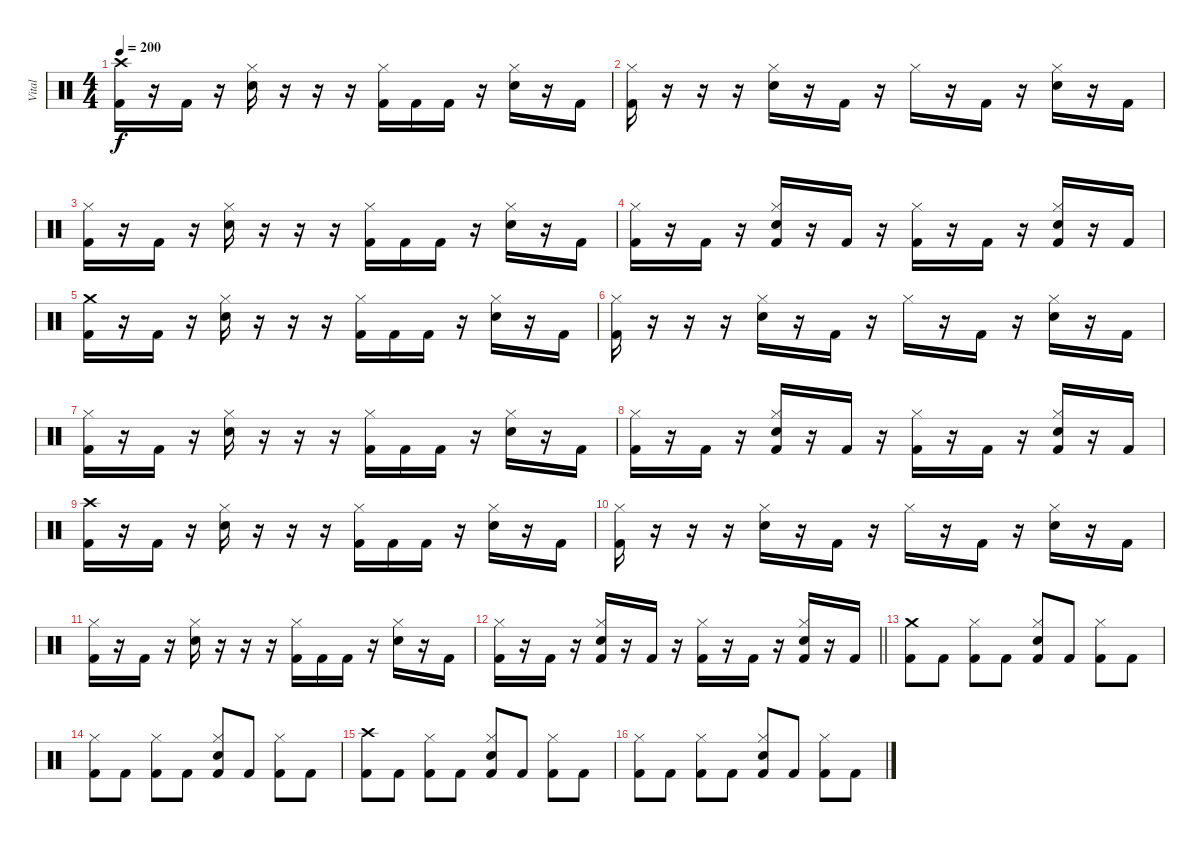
\track ("Vital" "Vital") {instrument percussion}
\staff {score}
\articulation defaults
\ts (4 4)
\tempo 200
\clef neutral
\ks c
("Crash high (hit)" "Kick (hit) 2").16{dy f} r.16 "Kick (hit) 2".16 r.16 ("Hi-Hat (closed)" "Snare (hit) 2").16 r.16 r.16 r.16 ("Hi-Hat (closed)" "Kick (hit) 2").16 "Kick (hit) 2".16 "Kick (hit) 2".16 r.16 ("Hi-Hat (closed)" "Snare (hit) 2").16 r.16 "Kick (hit) 2".16 |
("Hi-Hat (closed)" "Kick (hit) 2").16 r.16 r.16 r.16 ("Hi-Hat (closed)" "Snare (hit) 2").16 r.16 "Kick (hit) 2".16 r.16 "Hi-Hat (closed)".16 r.16 "Kick (hit) 2".16 r.16 ("Hi-Hat (closed)" "Snare (hit) 2").16 r.16 "Kick (hit) 2".16 |
("Hi-Hat (closed)" "Kick (hit) 2").16 r.16 "Kick (hit) 2".16 r.16 ("Hi-Hat (closed)" "Snare (hit) 2").16 r.16 r.16 r.16 ("Hi-Hat (closed)" "Kick (hit) 2").16 "Kick (hit) 2".16 "Kick (hit) 2".16 r.16 ("Hi-Hat (closed)" "Snare (hit) 2").16 r.16 "Kick (hit) 2".16 |
("Hi-Hat (closed)" "Kick (hit) 2").16 r.16 "Kick (hit) 2".16 r.16 ("Hi-Hat (closed)" "Snare (hit) 2" "Kick (hit) 2").16 r.16 "Kick (hit) 2".16 r.16 ("Hi-Hat (closed)" "Kick (hit) 2").16 r.16 "Kick (hit) 2".16 r.16 ("Hi-Hat (closed)" "Snare (hit) 2" "Kick (hit) 2").16 r.16 "Kick (hit) 2".16 |
("Crash medium (hit)" "Kick (hit) 2").16 r.16 "Kick (hit) 2".16 r.16 ("Hi-Hat (closed)" "Snare (hit) 2").16 r.16 r.16 r.16 ("Hi-Hat (closed)" "Kick (hit) 2").16 "Kick (hit) 2".16 "Kick (hit) 2".16 r.16 ("Hi-Hat (closed)" "Snare (hit) 2").16 r.16 "Kick (hit) 2".16 |
("Hi-Hat (closed)" "Kick (hit) 2").16 r.16 r.16 r.16 ("Hi-Hat (closed)" "Snare (hit) 2").16 r.16 "Kick (hit) 2".16 r.16 "Hi-Hat (closed)".16 r.16 "Kick (hit) 2".16 r.16 ("Hi-Hat (closed)" "Snare (hit) 2").16 r.16 "Kick (hit) 2".16 |
("Hi-Hat (closed)" "Kick (hit) 2").16 r.16 "Kick (hit) 2".16 r.16 ("Hi-Hat (closed)" "Snare (hit) 2").16 r.16 r.16 r.16 ("Hi-Hat (closed)" "Kick (hit) 2").16 "Kick (hit) 2".16 "Kick (hit) 2".16 r.16 ("Hi-Hat (closed)" "Snare (hit) 2").16 r.16 "Kick (hit) 2".16 |
("Hi-Hat (closed)" "Kick (hit) 2").16 r.16 "Kick (hit) 2".16 r.16 ("Hi-Hat (closed)" "Snare (hit) 2" "Kick (hit) 2").16 r.16 "Kick (hit) 2".16 r.16 ("Hi-Hat (closed)" "Kick (hit) 2").16 r.16 "Kick (hit) 2".16 r.16 ("Hi-Hat (closed)" "Snare (hit) 2" "Kick (hit) 2").16 r.16 "Kick (hit) 2".16 |
("Crash high (hit)" "Kick (hit) 2").16 r.16 "Kick (hit) 2".16 r.16 ("Hi-Hat (closed)" "Snare (hit) 2").16 r.16 r.16 r.16 ("Hi-Hat (closed)" "Kick (hit) 2").16 "Kick (hit) 2".16 "Kick (hit) 2".16 r.16 ("Hi-Hat (closed)" "Snare (hit) 2").16 r.16 "Kick (hit) 2".16 |
("Hi-Hat (closed)" "Kick (hit) 2").16 r.16 r.16 r.16 ("Hi-Hat (closed)" "Snare (hit) 2").16 r.16 "Kick (hit) 2".16 r.16 "Hi-Hat (closed)".16 r.16 "Kick (hit) 2".16 r.16 ("Hi-Hat (closed)" "Snare (hit) 2").16 r.16 "Kick (hit) 2".16 |
("Hi-Hat (closed)" "Kick (hit) 2").16 r.16 "Kick (hit) 2".16 r.16 ("Hi-Hat (closed)" "Snare (hit) 2").16 r.16 r.16 r.16 ("Hi-Hat (closed)" "Kick (hit) 2").16 "Kick (hit) 2".16 "Kick (hit) 2".16 r.16 ("Hi-Hat (closed)" "Snare (hit) 2").16 r.16 "Kick (hit) 2".16 |
\barLineRight lightlight
("Hi-Hat (closed)" "Kick (hit) 2").16 r.16 "Kick (hit) 2".16 r.16 ("Hi-Hat (closed)" "Snare (hit) 2" "Kick (hit) 2").16 r.16 "Kick (hit) 2".16 r.16 ("Hi-Hat (closed)" "Kick (hit) 2").16 r.16 "Kick (hit) 2".16 r.16 ("Hi-Hat (closed)" "Snare (hit) 2" "Kick (hit) 2").16 r.16 "Kick (hit) 2".16 |
("Crash medium (hit)" "Kick (hit) 2").8 "Kick (hit) 2".8 ("Hi-Hat (closed)" "Kick (hit) 2").8 "Kick (hit) 2".8 ("Hi-Hat (closed)" "Snare (hit) 2" "Kick (hit) 2").8 "Kick (hit) 2".8 ("Hi-Hat (closed)" "Kick (hit) 2").8 "Kick (hit) 2".8 |
("Hi-Hat (closed)" "Kick (hit) 2").8 "Kick (hit) 2".8 ("Hi-Hat (closed)" "Kick (hit) 2").8 "Kick (hit) 2".8 ("Hi-Hat (closed)" "Snare (hit) 2" "Kick (hit) 2").8 "Kick (hit) 2".8 ("Hi-Hat (closed)" "Kick (hit) 2").8 "Kick (hit) 2".8 |
("Crash high (hit)" "Kick (hit) 2").8 "Kick (hit) 2".8 ("Hi-Hat (closed)" "Kick (hit) 2").8 "Kick (hit) 2".8 ("Hi-Hat (closed)" "Snare (hit) 2" "Kick (hit) 2").8 "Kick (hit) 2".8 ("Hi-Hat (closed)" "Kick (hit) 2").8 "Kick (hit) 2".8 |
("Hi-Hat (closed)" "Kick (hit) 2").8 "Kick (hit) 2".8 ("Hi-Hat (closed)" "Kick (hit) 2").8 "Kick (hit) 2".8 ("Hi-Hat (closed)" "Snare (hit) 2" "Kick (hit) 2").8 "Kick (hit) 2".8 ("Hi-Hat (closed)" "Kick (hit) 2").8 "Kick (hit) 2".8
